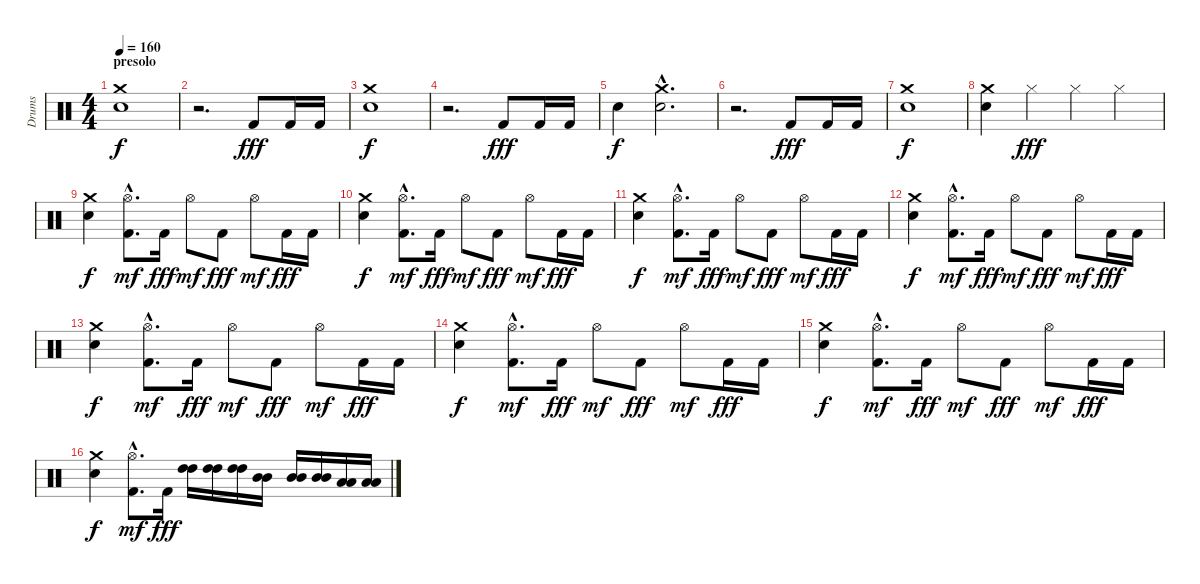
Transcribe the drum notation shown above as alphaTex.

\track ("Drums" "Drums") {instrument percussion}
\staff {score}
\articulation defaults
\ts (4 4)
\section ("" "presolo")
\tempo 160
\clef neutral
\ks c
("Crash medium (hit)" "Electric Snare (hit)").1{dy f} |
r.2{d} "Kick (hit) 2".8{dy fff} "Kick (hit) 2".16 "Kick (hit) 2".16 |
("Crash medium (hit)" "Electric Snare (hit)").1{dy f} |
r.2{d} "Kick (hit) 2".8{dy fff} "Kick (hit) 2".16 "Kick (hit) 2".16 |
"Electric Snare (hit)".4{dy f} ("Crash medium (hit)"{hac} "Electric Snare (hit)"{hac}).2{d} |
r.2{d} "Kick (hit) 2".8{dy fff} "Kick (hit) 2".16 "Kick (hit) 2".16 |
("Crash medium (hit)" "Electric Snare (hit)").1{dy f} |
("Crash medium (hit)" "Electric Snare (hit)").4 "Hi-Hat (closed)".4{dy fff} "Hi-Hat (closed)".4 "Hi-Hat (closed)".4 |
("Crash medium (hit)" "Electric Snare (hit)").4{dy f} ("Kick (hit) 2"{hac} "Hi-Hat (open)"{hac}).8{d dy mf} "Kick (hit) 2".16{dy fff} "Hi-Hat (open)".8{dy mf} "Kick (hit) 2".8{dy fff} "Hi-Hat (open)".8{dy mf} "Kick (hit) 2".16{dy fff} "Kick (hit) 2".16 |
("Crash medium (hit)" "Electric Snare (hit)").4{dy f} ("Kick (hit) 2"{hac} "Hi-Hat (open)"{hac}).8{d dy mf} "Kick (hit) 2".16{dy fff} "Hi-Hat (open)".8{dy mf} "Kick (hit) 2".8{dy fff} "Hi-Hat (open)".8{dy mf} "Kick (hit) 2".16{dy fff} "Kick (hit) 2".16 |
("Crash medium (hit)" "Electric Snare (hit)").4{dy f} ("Kick (hit) 2"{hac} "Hi-Hat (open)"{hac}).8{d dy mf} "Kick (hit) 2".16{dy fff} "Hi-Hat (open)".8{dy mf} "Kick (hit) 2".8{dy fff} "Hi-Hat (open)".8{dy mf} "Kick (hit) 2".16{dy fff} "Kick (hit) 2".16 |
("Crash medium (hit)" "Electric Snare (hit)").4{dy f} ("Kick (hit) 2"{hac} "Hi-Hat (open)"{hac}).8{d dy mf} "Kick (hit) 2".16{dy fff} "Hi-Hat (open)".8{dy mf} "Kick (hit) 2".8{dy fff} "Hi-Hat (open)".8{dy mf} "Kick (hit) 2".16{dy fff} "Kick (hit) 2".16 |
("Crash medium (hit)" "Electric Snare (hit)").4{dy f} ("Kick (hit) 2"{hac} "Hi-Hat (open)"{hac}).8{d dy mf} "Kick (hit) 2".16{dy fff} "Hi-Hat (open)".8{dy mf} "Kick (hit) 2".8{dy fff} "Hi-Hat (open)".8{dy mf} "Kick (hit) 2".16{dy fff} "Kick (hit) 2".16 |
("Crash medium (hit)" "Electric Snare (hit)").4{dy f} ("Kick (hit) 2"{hac} "Hi-Hat (open)"{hac}).8{d dy mf} "Kick (hit) 2".16{dy fff} "Hi-Hat (open)".8{dy mf} "Kick (hit) 2".8{dy fff} "Hi-Hat (open)".8{dy mf} "Kick (hit) 2".16{dy fff} "Kick (hit) 2".16 |
("Crash medium (hit)" "Electric Snare (hit)").4{dy f} ("Kick (hit) 2"{hac} "Hi-Hat (open)"{hac}).8{d dy mf} "Kick (hit) 2".16{dy fff} "Hi-Hat (open)".8{dy mf} "Kick (hit) 2".8{dy fff} "Hi-Hat (open)".8{dy mf} "Kick (hit) 2".16{dy fff} "Kick (hit) 2".16 |
("Crash medium (hit)" "Electric Snare (hit)").4{dy f} ("Kick (hit) 2"{hac} "Hi-Hat (open)"{hac}).8{d dy mf} "Kick (hit) 2".16{dy fff} ("High Tom (hit)" "High Tom (hit)").16 ("High Tom (hit)" "High Tom (hit)").16 ("High Tom (hit)" "High Tom (hit)").16 ("Mid Tom (hit)" "Mid Tom (hit)").16 ("Mid Tom (hit)" "Mid Tom (hit)").16 ("Mid Tom (hit)" "Mid Tom (hit)").16 ("Low Tom (hit)" "Low Tom (hit)").16 ("Low Tom (hit)" "Low Tom (hit)").16
